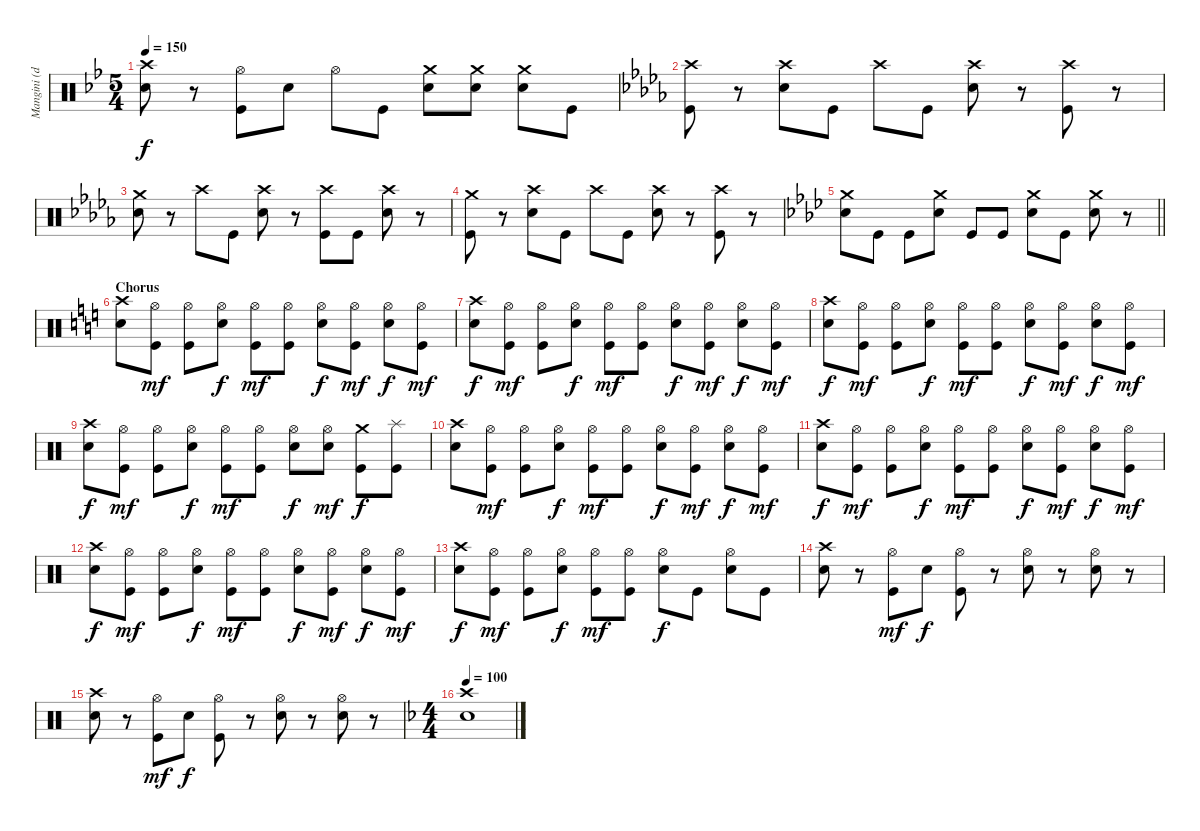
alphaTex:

\track ("Mangini (drums)" "Mangini (d") {instrument percussion}
\staff {score}
\articulation defaults
\ts (5 4)
\tempo 150
\clef neutral
\ks gminor
("Crash high (hit)" "Snare (hit) 2").8{dy f} r.8 ("Hi-Hat (open)" "Kick (hit)").8 "Snare (hit) 2".8 "Hi-Hat (open)".8 "Kick (hit)".8 ("Crash medium (hit)" "Snare (hit) 2").8 ("Crash medium (hit)" "Snare (hit) 2").8 ("Crash medium (hit)" "Snare (hit) 2").8 "Kick (hit)".8 |
\ks bbminor
("Crash high (hit)" "Kick (hit)").8 r.8 ("Crash high (hit)" "Snare (hit) 2").8 "Kick (hit)".8 "Crash high (hit)".8 "Kick (hit)".8 ("Crash high (hit)" "Snare (hit) 2").8 r.8 ("Crash high (hit)" "Kick (hit)").8 r.8 |
("Crash medium (hit)" "Snare (hit) 2").8 r.8 "Crash high (hit)".8 "Kick (hit)".8 ("Crash high (hit)" "Snare (hit) 2").8 r.8 ("Crash high (hit)" "Kick (hit)").8 "Kick (hit)".8 ("Crash high (hit)" "Snare (hit) 2").8 r.8 |
("Crash medium (hit)" "Kick (hit)").8 r.8 ("Crash high (hit)" "Snare (hit) 2").8 "Kick (hit)".8 "Crash high (hit)".8 "Kick (hit)".8 ("Crash high (hit)" "Snare (hit) 2").8 r.8 ("Crash high (hit)" "Kick (hit)").8 r.8 |
\barLineRight lightlight
\ks fminor
("Crash medium (hit)" "Snare (hit) 2").8 "Kick (hit)".8 "Kick (hit)".8 ("Crash medium (hit)" "Snare (hit) 2").8 "Kick (hit)".8 "Kick (hit)".8 ("Crash medium (hit)" "Snare (hit) 2").8 "Kick (hit)".8 ("Crash medium (hit)" "Snare (hit) 2").8 r.8 |
\section ("" "Chorus")
\ks aminor
("Crash high (hit)" "Snare (hit) 2").8 ("Hi-Hat (open)" "Kick (hit)").8{dy mf} ("Hi-Hat (open)" "Kick (hit)").8 ("Hi-Hat (open)" "Snare (hit) 2").8{dy f} ("Hi-Hat (open)" "Kick (hit)").8{dy mf} ("Hi-Hat (open)" "Kick (hit)").8 ("Hi-Hat (open)" "Snare (hit) 2").8{dy f} ("Hi-Hat (open)" "Kick (hit)").8{dy mf} ("Hi-Hat (open)" "Snare (hit) 2").8{dy f} ("Hi-Hat (open)" "Kick (hit)").8{dy mf} |
("Crash high (hit)" "Snare (hit) 2").8{dy f} ("Hi-Hat (open)" "Kick (hit)").8{dy mf} ("Hi-Hat (open)" "Kick (hit)").8 ("Hi-Hat (open)" "Snare (hit) 2").8{dy f} ("Hi-Hat (open)" "Kick (hit)").8{dy mf} ("Hi-Hat (open)" "Kick (hit)").8 ("Hi-Hat (open)" "Snare (hit) 2").8{dy f} ("Hi-Hat (open)" "Kick (hit)").8{dy mf} ("Hi-Hat (open)" "Snare (hit) 2").8{dy f} ("Hi-Hat (open)" "Kick (hit)").8{dy mf} |
("Crash high (hit)" "Snare (hit) 2").8{dy f} ("Hi-Hat (open)" "Kick (hit)").8{dy mf} ("Hi-Hat (open)" "Kick (hit)").8 ("Hi-Hat (open)" "Snare (hit) 2").8{dy f} ("Hi-Hat (open)" "Kick (hit)").8{dy mf} ("Hi-Hat (open)" "Kick (hit)").8 ("Hi-Hat (open)" "Snare (hit) 2").8{dy f} ("Hi-Hat (open)" "Kick (hit)").8{dy mf} ("Hi-Hat (open)" "Snare (hit) 2").8{dy f} ("Hi-Hat (open)" "Kick (hit)").8{dy mf} |
("Crash high (hit)" "Snare (hit) 2").8{dy f} ("Hi-Hat (open)" "Kick (hit)").8{dy mf} ("Hi-Hat (open)" "Kick (hit)").8 ("Hi-Hat (open)" "Snare (hit) 2").8{dy f} ("Hi-Hat (open)" "Kick (hit)").8{dy mf} ("Hi-Hat (open)" "Kick (hit)").8 ("Hi-Hat (open)" "Snare (hit) 2").8{dy f} ("Hi-Hat (open)" "Snare (hit) 2").8{dy mf} ("Crash medium (hit)" "Kick (hit)").8{dy f} ("Splash (hit)" "Kick (hit)").8 |
("Crash high (hit)" "Snare (hit) 2").8 ("Hi-Hat (open)" "Kick (hit)").8{dy mf} ("Hi-Hat (open)" "Kick (hit)").8 ("Hi-Hat (open)" "Snare (hit) 2").8{dy f} ("Hi-Hat (open)" "Kick (hit)").8{dy mf} ("Hi-Hat (open)" "Kick (hit)").8 ("Hi-Hat (open)" "Snare (hit) 2").8{dy f} ("Hi-Hat (open)" "Kick (hit)").8{dy mf} ("Hi-Hat (open)" "Snare (hit) 2").8{dy f} ("Hi-Hat (open)" "Kick (hit)").8{dy mf} |
("Crash high (hit)" "Snare (hit) 2").8{dy f} ("Hi-Hat (open)" "Kick (hit)").8{dy mf} ("Hi-Hat (open)" "Kick (hit)").8 ("Hi-Hat (open)" "Snare (hit) 2").8{dy f} ("Hi-Hat (open)" "Kick (hit)").8{dy mf} ("Hi-Hat (open)" "Kick (hit)").8 ("Hi-Hat (open)" "Snare (hit) 2").8{dy f} ("Hi-Hat (open)" "Kick (hit)").8{dy mf} ("Hi-Hat (open)" "Snare (hit) 2").8{dy f} ("Hi-Hat (open)" "Kick (hit)").8{dy mf} |
("Crash high (hit)" "Snare (hit) 2").8{dy f} ("Hi-Hat (open)" "Kick (hit)").8{dy mf} ("Hi-Hat (open)" "Kick (hit)").8 ("Hi-Hat (open)" "Snare (hit) 2").8{dy f} ("Hi-Hat (open)" "Kick (hit)").8{dy mf} ("Hi-Hat (open)" "Kick (hit)").8 ("Hi-Hat (open)" "Snare (hit) 2").8{dy f} ("Hi-Hat (open)" "Kick (hit)").8{dy mf} ("Hi-Hat (open)" "Snare (hit) 2").8{dy f} ("Hi-Hat (open)" "Kick (hit)").8{dy mf} |
("Crash high (hit)" "Snare (hit) 2").8{dy f} ("Hi-Hat (open)" "Kick (hit)").8{dy mf} ("Hi-Hat (open)" "Kick (hit)").8 ("Hi-Hat (open)" "Snare (hit) 2").8{dy f} ("Hi-Hat (open)" "Kick (hit)").8{dy mf} ("Hi-Hat (open)" "Kick (hit)").8 ("Hi-Hat (open)" "Snare (hit) 2").8{dy f} "Kick (hit)".8 ("Hi-Hat (open)" "Snare (hit) 2").8 "Kick (hit)".8 |
("Crash high (hit)" "Snare (hit) 2").8 r.8 ("Hi-Hat (open)" "Kick (hit)").8{dy mf} "Snare (hit) 2".8{dy f} ("Hi-Hat (open)" "Kick (hit)").8 r.8 ("Hi-Hat (open)" "Snare (hit) 2").8 r.8 ("Hi-Hat (open)" "Snare (hit) 2").8 r.8 |
("Crash high (hit)" "Snare (hit) 2").8 r.8 ("Hi-Hat (open)" "Kick (hit)").8{dy mf} "Snare (hit) 2".8{dy f} ("Hi-Hat (open)" "Kick (hit)").8 r.8 ("Hi-Hat (open)" "Snare (hit) 2").8 r.8 ("Hi-Hat (open)" "Snare (hit) 2").8 r.8 |
\ts (4 4)
\tempo 100
\ks dminor
("Crash high (hit)" "Snare (hit) 2").1
